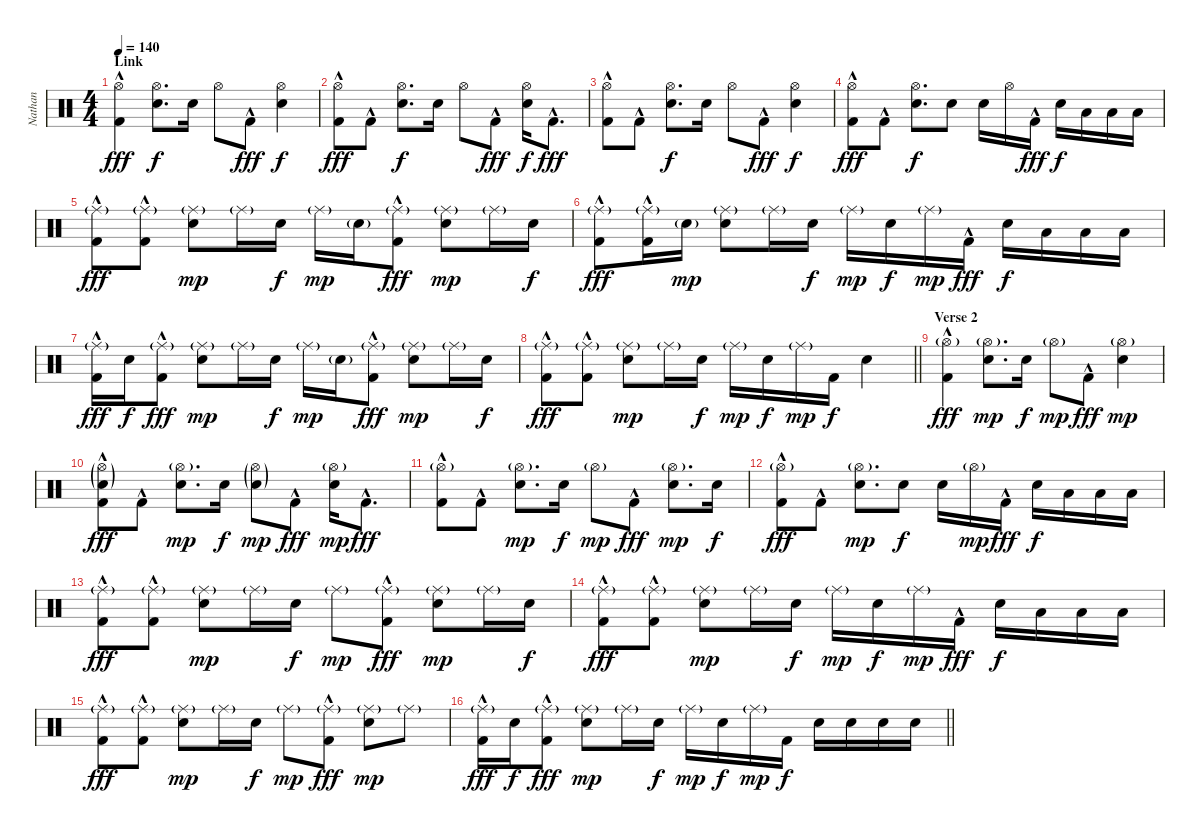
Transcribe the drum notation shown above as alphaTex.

\track ("Nathan" "Nathan") {instrument percussion}
\staff {score}
\articulation defaults
\ts (4 4)
\section ("" "Link")
\tempo 140
\clef neutral
\ks c
("Hi-Hat (open)" "Kick (hit) 2"{hac}).4{dy fff} ("Hi-Hat (open)" "Snare (hit) 2").8{d dy f} "Snare (hit) 2".16 "Hi-Hat (open)".8 "Kick (hit) 2"{hac}.8{dy fff} ("Hi-Hat (open)" "Snare (hit) 2").4{dy f} |
("Hi-Hat (open)" "Kick (hit) 2"{hac}).8{dy fff} "Kick (hit) 2"{hac}.8 ("Hi-Hat (open)" "Snare (hit) 2").8{d dy f} "Snare (hit) 2".16 "Hi-Hat (open)".8 "Kick (hit) 2"{hac}.8{dy fff} ("Hi-Hat (open)" "Snare (hit) 2").16{dy f} "Kick (hit) 2"{hac}.8{d dy fff} |
("Hi-Hat (open)" "Kick (hit) 2"{hac}).8 "Kick (hit) 2"{hac}.8 ("Hi-Hat (open)" "Snare (hit) 2").8{d dy f} "Snare (hit) 2".16 "Hi-Hat (open)".8 "Kick (hit) 2"{hac}.8{dy fff} ("Hi-Hat (open)" "Snare (hit) 2").4{dy f} |
("Hi-Hat (open)" "Kick (hit) 2"{hac}).8{dy fff} "Kick (hit) 2"{hac}.8 ("Hi-Hat (open)" "Snare (hit) 2").8{d dy f} "Snare (hit) 2".8 "Snare (hit) 2".16 "Hi-Hat (open)".16 "Kick (hit) 2"{hac}.16{dy fff} "Snare (hit) 2".16{dy f} "Low Tom (hit)".16 "Low Tom (hit)".16 "Low Tom (hit)".16 |
("Ride (middle)"{g} "Kick (hit) 2"{hac}).8{dy fff} ("Ride (middle)"{g} "Kick (hit) 2"{hac}).8 ("Ride (middle)"{g} "Snare (hit) 2").8{dy mp} "Ride (middle)"{g}.16 "Snare (hit) 2".16{dy f} "Ride (middle)"{g}.16{dy mp} "Snare (hit) 2"{g}.16 ("Ride (middle)"{g} "Kick (hit) 2"{hac}).8{dy fff} ("Ride (middle)"{g} "Snare (hit) 2").8{dy mp} "Ride (middle)"{g}.16 "Snare (hit) 2".16{dy f} |
("Ride (middle)"{g} "Kick (hit) 2"{hac}).8{dy fff} ("Ride (middle)"{g} "Kick (hit) 2"{hac}).16 "Snare (hit) 2"{g}.16{dy mp} ("Ride (middle)"{g} "Snare (hit) 2").8 "Ride (middle)"{g}.16 "Snare (hit) 2".16{dy f} "Ride (middle)"{g}.16{dy mp} "Snare (hit) 2".16{dy f} "Ride (middle)"{g}.16{dy mp} "Kick (hit) 2"{hac}.16{dy fff} "Snare (hit) 2".16{dy f} "Low Tom (hit)".16 "Low Tom (hit)".16 "Low Tom (hit)".16 |
("Ride (middle)"{g} "Kick (hit) 2"{hac}).16{dy fff} "Snare (hit) 2".16{dy f} ("Ride (middle)"{g} "Kick (hit) 2"{hac}).8{dy fff} ("Ride (middle)"{g} "Snare (hit) 2").8{dy mp} "Ride (middle)"{g}.16 "Snare (hit) 2".16{dy f} "Ride (middle)"{g}.16{dy mp} "Snare (hit) 2"{g}.16 ("Ride (middle)"{g} "Kick (hit) 2"{hac}).8{dy fff} ("Ride (middle)"{g} "Snare (hit) 2").8{dy mp} "Ride (middle)"{g}.16 "Snare (hit) 2".16{dy f} |
\barLineRight lightlight
("Ride (middle)"{g} "Kick (hit) 2"{hac}).8{dy fff} ("Ride (middle)"{g} "Kick (hit) 2"{hac}).8 ("Ride (middle)"{g} "Snare (hit) 2").8{dy mp} "Ride (middle)"{g}.16 "Snare (hit) 2".16{dy f} "Ride (middle)"{g}.16{dy mp} "Snare (hit) 2".16{dy f} "Ride (middle)"{g}.16{dy mp} "Kick (hit) 2".16{dy f} "Snare (hit) 2".4 |
\section ("" "Verse 2")
("Hi-Hat (open)"{g} "Kick (hit) 2"{hac}).4{dy fff} ("Hi-Hat (open)"{g} "Snare (hit) 2").8{d dy mp} "Snare (hit) 2".16{dy f} "Hi-Hat (open)"{g}.8{dy mp} "Kick (hit) 2"{hac}.8{dy fff} ("Hi-Hat (open)"{g} "Snare (hit) 2").4{dy mp} |
("Hi-Hat (open)"{g} "Snare (hit) 2"{g} "Kick (hit) 2"{hac}).8{dy fff} "Kick (hit) 2"{hac}.8 ("Hi-Hat (open)"{g} "Snare (hit) 2").8{d dy mp} "Snare (hit) 2".16{dy f} ("Hi-Hat (open)"{g} "Snare (hit) 2"{g}).8{dy mp} "Kick (hit) 2"{hac}.8{dy fff} ("Hi-Hat (open)"{g} "Snare (hit) 2").16{dy mp} "Kick (hit) 2"{hac}.8{d dy fff} |
("Hi-Hat (open)"{g} "Kick (hit) 2"{hac}).8 "Kick (hit) 2"{hac}.8 ("Hi-Hat (open)"{g} "Snare (hit) 2").8{d dy mp} "Snare (hit) 2".16{dy f} "Hi-Hat (open)"{g}.8{dy mp} "Kick (hit) 2"{hac}.8{dy fff} ("Hi-Hat (open)"{g} "Snare (hit) 2").8{d dy mp} "Snare (hit) 2".16{dy f} |
("Hi-Hat (open)"{g} "Kick (hit) 2"{hac}).8{dy fff} "Kick (hit) 2"{hac}.8 ("Hi-Hat (open)"{g} "Snare (hit) 2").8{d dy mp} "Snare (hit) 2".8{dy f} "Snare (hit) 2".16 "Hi-Hat (open)"{g}.16{dy mp} "Kick (hit) 2"{hac}.16{dy fff} "Snare (hit) 2".16{dy f} "Low Tom (hit)".16 "Low Tom (hit)".16 "Low Tom (hit)".16 |
("Ride (middle)"{g} "Kick (hit) 2"{hac}).8{dy fff} ("Ride (middle)"{g} "Kick (hit) 2"{hac}).8 ("Ride (middle)"{g} "Snare (hit) 2").8{dy mp} "Ride (middle)"{g}.16 "Snare (hit) 2".16{dy f} "Ride (middle)"{g}.8{dy mp} ("Ride (middle)"{g} "Kick (hit) 2"{hac}).8{dy fff} ("Ride (middle)"{g} "Snare (hit) 2").8{dy mp} "Ride (middle)"{g}.16 "Snare (hit) 2".16{dy f} |
("Ride (middle)"{g} "Kick (hit) 2"{hac}).8{dy fff} ("Ride (middle)"{g} "Kick (hit) 2"{hac}).8 ("Ride (middle)"{g} "Snare (hit) 2").8{dy mp} "Ride (middle)"{g}.16 "Snare (hit) 2".16{dy f} "Ride (middle)"{g}.16{dy mp} "Snare (hit) 2".16{dy f} "Ride (middle)"{g}.16{dy mp} "Kick (hit) 2"{hac}.16{dy fff} "Snare (hit) 2".16{dy f} "Low Tom (hit)".16 "Low Tom (hit)".16 "Low Tom (hit)".16 |
("Ride (middle)"{g} "Kick (hit) 2"{hac}).8{dy fff} ("Ride (middle)"{g} "Kick (hit) 2"{hac}).8 ("Ride (middle)"{g} "Snare (hit) 2").8{dy mp} "Ride (middle)"{g}.16 "Snare (hit) 2".16{dy f} "Ride (middle)"{g}.8{dy mp} ("Ride (middle)"{g} "Kick (hit) 2"{hac}).8{dy fff} ("Ride (middle)"{g} "Snare (hit) 2").8{dy mp} "Ride (middle)"{g}.8 |
\barLineRight lightlight
("Ride (middle)"{g} "Kick (hit) 2"{hac}).16{dy fff} "Snare (hit) 2".16{dy f} ("Ride (middle)"{g} "Kick (hit) 2"{hac}).8{dy fff} ("Ride (middle)"{g} "Snare (hit) 2").8{dy mp} "Ride (middle)"{g}.16 "Snare (hit) 2".16{dy f} "Ride (middle)"{g}.16{dy mp} "Snare (hit) 2".16{dy f} "Ride (middle)"{g}.16{dy mp} "Kick (hit) 2".16{dy f} "Snare (hit) 2".16 "Snare (hit) 2".16 "Snare (hit) 2".16 "Snare (hit) 2".16
